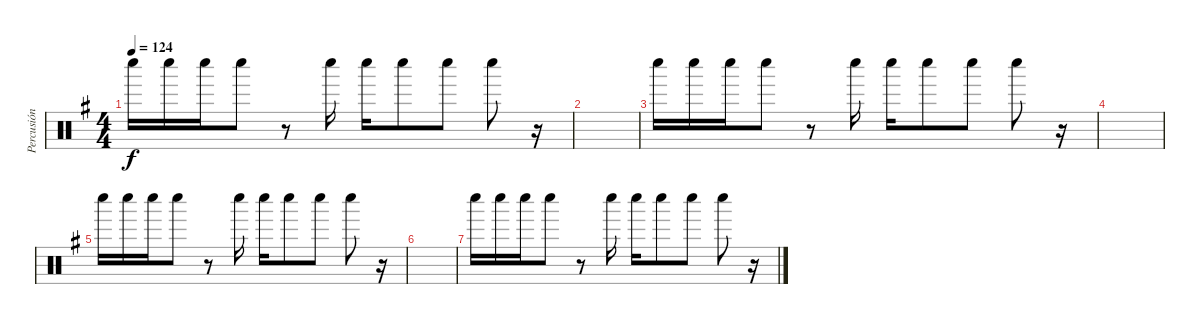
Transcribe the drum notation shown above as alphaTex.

\track ("Percusión" "Percusión") {instrument percussion}
\staff {score}
\articulation defaults
\ts (4 4)
\tempo 124
\clef neutral
\ks g "Whistle low (hit)".16{dy f} "Whistle low (hit)".16 "Whistle low (hit)".16 "Whistle low (hit)".8
r.8 "Whistle low (hit)".16 "Whistle low (hit)".16 "Whistle low (hit)".8 "Whistle low (hit)".8 "Whistle low (hit)".8 r.16 |
|
"Whistle low (hit)".16{volume 8} "Whistle low (hit)".16 "Whistle low (hit)".16 "Whistle low (hit)".8 r.8 "Whistle low (hit)".16 "Whistle low (hit)".16 "Whistle low (hit)".8 "Whistle low (hit)".8 "Whistle low (hit)".8 r.16 |
|
"Whistle low (hit)".16{volume 4} "Whistle low (hit)".16 "Whistle low (hit)".16 "Whistle low (hit)".8 r.8 "Whistle low (hit)".16 "Whistle low (hit)".16 "Whistle low (hit)".8 "Whistle low (hit)".8 "Whistle low (hit)".8 r.16 |
|
"Whistle low (hit)".16{volume 1} "Whistle low (hit)".16 "Whistle low (hit)".16 "Whistle low (hit)".8 r.8 "Whistle low (hit)".16 "Whistle low (hit)".16 "Whistle low (hit)".8 "Whistle low (hit)".8 "Whistle low (hit)".8 r.16
